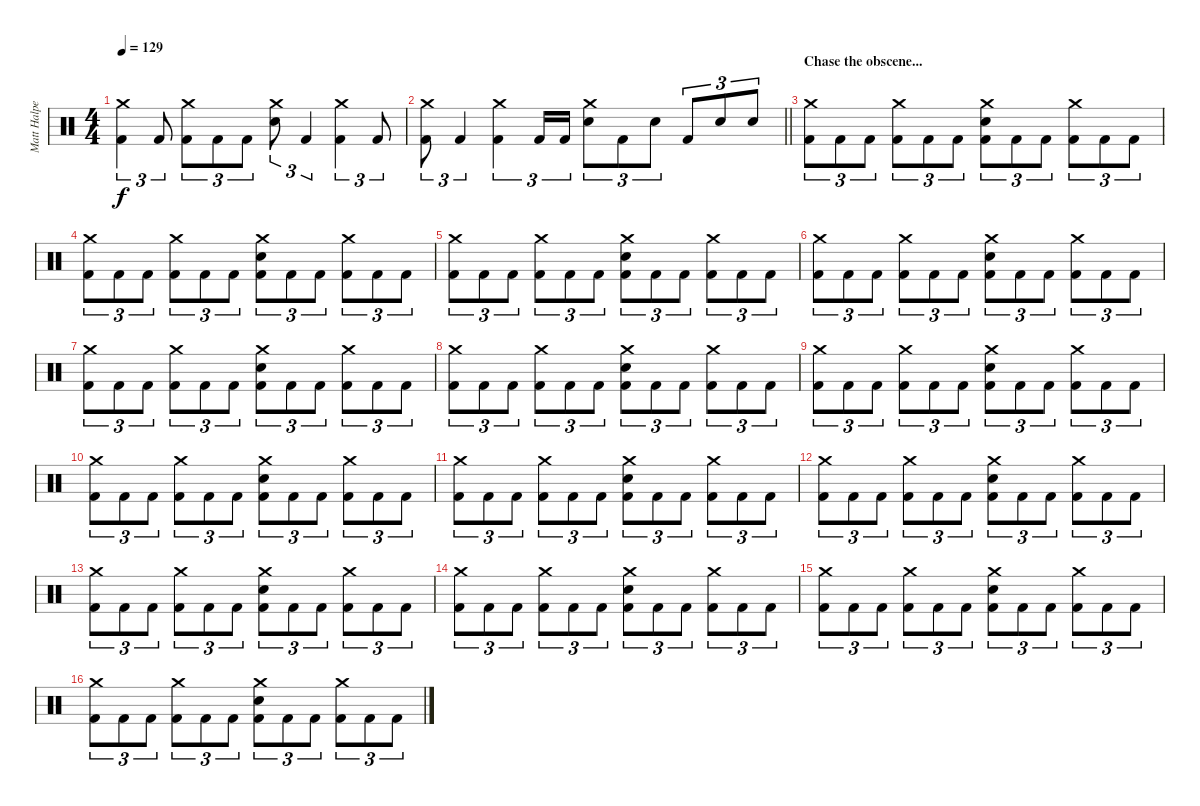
\track ("Matt Halpern - Drums" "Matt Halpe") {instrument percussion}
\staff {score}
\articulation defaults
\ts (4 4)
\tempo 129
\clef neutral
\ks c
("Crash medium (hit)" "Kick (hit) 2").4{tu (3 2) dy f} "Kick (hit) 2".8{tu (3 2)} ("Crash medium (hit)" "Kick (hit) 2").8{tu (3 2)} "Kick (hit) 2".8{tu (3 2)} "Kick (hit) 2".8{tu (3 2)} ("Crash medium (hit)" "Electric Snare (hit)").8{tu (3 2)} "Kick (hit) 2".4{tu (3 2)} ("Crash medium (hit)" "Kick (hit) 2").4{tu (3 2)} "Kick (hit) 2".8{tu (3 2)} |
\barLineRight lightlight
("Crash medium (hit)" "Kick (hit) 2").8{tu (3 2)} "Kick (hit) 2".4{tu (3 2)} ("Crash medium (hit)" "Kick (hit) 2").4{tu (3 2)} "Kick (hit) 2".16{tu (3 2)} "Kick (hit) 2".16{tu (3 2)} ("Crash medium (hit)" "Electric Snare (hit)").8{tu (3 2)} "Kick (hit) 2".8{tu (3 2)} "Electric Snare (hit)".8{tu (3 2)} "Kick (hit) 2".8{tu (3 2)} "Electric Snare (hit)".8{tu (3 2)} "Electric Snare (hit)".8{tu (3 2)} |
\section ("" "Chase the obscene...")
("Crash medium (hit)" "Kick (hit) 2").8{tu (3 2)} "Kick (hit) 2".8{tu (3 2)} "Kick (hit) 2".8{tu (3 2)} ("Crash medium (hit)" "Kick (hit) 2").8{tu (3 2)} "Kick (hit) 2".8{tu (3 2)} "Kick (hit) 2".8{tu (3 2)} ("Crash medium (hit)" "Electric Snare (hit)" "Kick (hit) 2").8{tu (3 2)} "Kick (hit) 2".8{tu (3 2)} "Kick (hit) 2".8{tu (3 2)} ("Crash medium (hit)" "Kick (hit) 2").8{tu (3 2)} "Kick (hit) 2".8{tu (3 2)} "Kick (hit) 2".8{tu (3 2)} |
("Crash medium (hit)" "Kick (hit) 2").8{tu (3 2)} "Kick (hit) 2".8{tu (3 2)} "Kick (hit) 2".8{tu (3 2)} ("Crash medium (hit)" "Kick (hit) 2").8{tu (3 2)} "Kick (hit) 2".8{tu (3 2)} "Kick (hit) 2".8{tu (3 2)} ("Crash medium (hit)" "Electric Snare (hit)" "Kick (hit) 2").8{tu (3 2)} "Kick (hit) 2".8{tu (3 2)} "Kick (hit) 2".8{tu (3 2)} ("Crash medium (hit)" "Kick (hit) 2").8{tu (3 2)} "Kick (hit) 2".8{tu (3 2)} "Kick (hit) 2".8{tu (3 2)} |
("Crash medium (hit)" "Kick (hit) 2").8{tu (3 2)} "Kick (hit) 2".8{tu (3 2)} "Kick (hit) 2".8{tu (3 2)} ("Crash medium (hit)" "Kick (hit) 2").8{tu (3 2)} "Kick (hit) 2".8{tu (3 2)} "Kick (hit) 2".8{tu (3 2)} ("Crash medium (hit)" "Electric Snare (hit)" "Kick (hit) 2").8{tu (3 2)} "Kick (hit) 2".8{tu (3 2)} "Kick (hit) 2".8{tu (3 2)} ("Crash medium (hit)" "Kick (hit) 2").8{tu (3 2)} "Kick (hit) 2".8{tu (3 2)} "Kick (hit) 2".8{tu (3 2)} |
("Crash medium (hit)" "Kick (hit) 2").8{tu (3 2)} "Kick (hit) 2".8{tu (3 2)} "Kick (hit) 2".8{tu (3 2)} ("Crash medium (hit)" "Kick (hit) 2").8{tu (3 2)} "Kick (hit) 2".8{tu (3 2)} "Kick (hit) 2".8{tu (3 2)} ("Crash medium (hit)" "Electric Snare (hit)" "Kick (hit) 2").8{tu (3 2)} "Kick (hit) 2".8{tu (3 2)} "Kick (hit) 2".8{tu (3 2)} ("Crash medium (hit)" "Kick (hit) 2").8{tu (3 2)} "Kick (hit) 2".8{tu (3 2)} "Kick (hit) 2".8{tu (3 2)} |
("Crash medium (hit)" "Kick (hit) 2").8{tu (3 2)} "Kick (hit) 2".8{tu (3 2)} "Kick (hit) 2".8{tu (3 2)} ("Crash medium (hit)" "Kick (hit) 2").8{tu (3 2)} "Kick (hit) 2".8{tu (3 2)} "Kick (hit) 2".8{tu (3 2)} ("Crash medium (hit)" "Electric Snare (hit)" "Kick (hit) 2").8{tu (3 2)} "Kick (hit) 2".8{tu (3 2)} "Kick (hit) 2".8{tu (3 2)} ("Crash medium (hit)" "Kick (hit) 2").8{tu (3 2)} "Kick (hit) 2".8{tu (3 2)} "Kick (hit) 2".8{tu (3 2)} |
("Crash medium (hit)" "Kick (hit) 2").8{tu (3 2)} "Kick (hit) 2".8{tu (3 2)} "Kick (hit) 2".8{tu (3 2)} ("Crash medium (hit)" "Kick (hit) 2").8{tu (3 2)} "Kick (hit) 2".8{tu (3 2)} "Kick (hit) 2".8{tu (3 2)} ("Crash medium (hit)" "Electric Snare (hit)" "Kick (hit) 2").8{tu (3 2)} "Kick (hit) 2".8{tu (3 2)} "Kick (hit) 2".8{tu (3 2)} ("Crash medium (hit)" "Kick (hit) 2").8{tu (3 2)} "Kick (hit) 2".8{tu (3 2)} "Kick (hit) 2".8{tu (3 2)} |
("Crash medium (hit)" "Kick (hit) 2").8{tu (3 2)} "Kick (hit) 2".8{tu (3 2)} "Kick (hit) 2".8{tu (3 2)} ("Crash medium (hit)" "Kick (hit) 2").8{tu (3 2)} "Kick (hit) 2".8{tu (3 2)} "Kick (hit) 2".8{tu (3 2)} ("Crash medium (hit)" "Electric Snare (hit)" "Kick (hit) 2").8{tu (3 2)} "Kick (hit) 2".8{tu (3 2)} "Kick (hit) 2".8{tu (3 2)} ("Crash medium (hit)" "Kick (hit) 2").8{tu (3 2)} "Kick (hit) 2".8{tu (3 2)} "Kick (hit) 2".8{tu (3 2)} |
("Crash medium (hit)" "Kick (hit) 2").8{tu (3 2)} "Kick (hit) 2".8{tu (3 2)} "Kick (hit) 2".8{tu (3 2)} ("Crash medium (hit)" "Kick (hit) 2").8{tu (3 2)} "Kick (hit) 2".8{tu (3 2)} "Kick (hit) 2".8{tu (3 2)} ("Crash medium (hit)" "Electric Snare (hit)" "Kick (hit) 2").8{tu (3 2)} "Kick (hit) 2".8{tu (3 2)} "Kick (hit) 2".8{tu (3 2)} ("Crash medium (hit)" "Kick (hit) 2").8{tu (3 2)} "Kick (hit) 2".8{tu (3 2)} "Kick (hit) 2".8{tu (3 2)} |
("Crash medium (hit)" "Kick (hit) 2").8{tu (3 2)} "Kick (hit) 2".8{tu (3 2)} "Kick (hit) 2".8{tu (3 2)} ("Crash medium (hit)" "Kick (hit) 2").8{tu (3 2)} "Kick (hit) 2".8{tu (3 2)} "Kick (hit) 2".8{tu (3 2)} ("Crash medium (hit)" "Electric Snare (hit)" "Kick (hit) 2").8{tu (3 2)} "Kick (hit) 2".8{tu (3 2)} "Kick (hit) 2".8{tu (3 2)} ("Crash medium (hit)" "Kick (hit) 2").8{tu (3 2)} "Kick (hit) 2".8{tu (3 2)} "Kick (hit) 2".8{tu (3 2)} |
("Crash medium (hit)" "Kick (hit) 2").8{tu (3 2)} "Kick (hit) 2".8{tu (3 2)} "Kick (hit) 2".8{tu (3 2)} ("Crash medium (hit)" "Kick (hit) 2").8{tu (3 2)} "Kick (hit) 2".8{tu (3 2)} "Kick (hit) 2".8{tu (3 2)} ("Crash medium (hit)" "Electric Snare (hit)" "Kick (hit) 2").8{tu (3 2)} "Kick (hit) 2".8{tu (3 2)} "Kick (hit) 2".8{tu (3 2)} ("Crash medium (hit)" "Kick (hit) 2").8{tu (3 2)} "Kick (hit) 2".8{tu (3 2)} "Kick (hit) 2".8{tu (3 2)} |
("Crash medium (hit)" "Kick (hit) 2").8{tu (3 2)} "Kick (hit) 2".8{tu (3 2)} "Kick (hit) 2".8{tu (3 2)} ("Crash medium (hit)" "Kick (hit) 2").8{tu (3 2)} "Kick (hit) 2".8{tu (3 2)} "Kick (hit) 2".8{tu (3 2)} ("Crash medium (hit)" "Electric Snare (hit)" "Kick (hit) 2").8{tu (3 2)} "Kick (hit) 2".8{tu (3 2)} "Kick (hit) 2".8{tu (3 2)} ("Crash medium (hit)" "Kick (hit) 2").8{tu (3 2)} "Kick (hit) 2".8{tu (3 2)} "Kick (hit) 2".8{tu (3 2)} |
("Crash medium (hit)" "Kick (hit) 2").8{tu (3 2)} "Kick (hit) 2".8{tu (3 2)} "Kick (hit) 2".8{tu (3 2)} ("Crash medium (hit)" "Kick (hit) 2").8{tu (3 2)} "Kick (hit) 2".8{tu (3 2)} "Kick (hit) 2".8{tu (3 2)} ("Crash medium (hit)" "Electric Snare (hit)" "Kick (hit) 2").8{tu (3 2)} "Kick (hit) 2".8{tu (3 2)} "Kick (hit) 2".8{tu (3 2)} ("Crash medium (hit)" "Kick (hit) 2").8{tu (3 2)} "Kick (hit) 2".8{tu (3 2)} "Kick (hit) 2".8{tu (3 2)} |
("Crash medium (hit)" "Kick (hit) 2").8{tu (3 2)} "Kick (hit) 2".8{tu (3 2)} "Kick (hit) 2".8{tu (3 2)} ("Crash medium (hit)" "Kick (hit) 2").8{tu (3 2)} "Kick (hit) 2".8{tu (3 2)} "Kick (hit) 2".8{tu (3 2)} ("Crash medium (hit)" "Electric Snare (hit)" "Kick (hit) 2").8{tu (3 2)} "Kick (hit) 2".8{tu (3 2)} "Kick (hit) 2".8{tu (3 2)} ("Crash medium (hit)" "Kick (hit) 2").8{tu (3 2)} "Kick (hit) 2".8{tu (3 2)} "Kick (hit) 2".8{tu (3 2)} |
("Crash medium (hit)" "Kick (hit) 2").8{tu (3 2)} "Kick (hit) 2".8{tu (3 2)} "Kick (hit) 2".8{tu (3 2)} ("Crash medium (hit)" "Kick (hit) 2").8{tu (3 2)} "Kick (hit) 2".8{tu (3 2)} "Kick (hit) 2".8{tu (3 2)} ("Crash medium (hit)" "Electric Snare (hit)" "Kick (hit) 2").8{tu (3 2)} "Kick (hit) 2".8{tu (3 2)} "Kick (hit) 2".8{tu (3 2)} ("Crash medium (hit)" "Kick (hit) 2").8{tu (3 2)} "Kick (hit) 2".8{tu (3 2)} "Kick (hit) 2".8{tu (3 2)}
